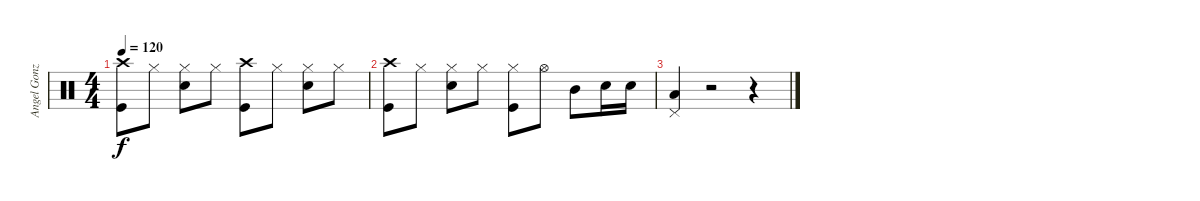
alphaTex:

\track ("Angel Gonzalez - Batería" "Angel Gonz") {instrument percussion}
\staff {score}
\articulation defaults
\ts (4 4)
\tempo 120
\clef neutral
\ks c
("Crash high (hit)" "Kick (hit)").8{dy f} "Hi-Hat (closed)".8 ("Hi-Hat (closed)" "Electric Snare (hit)").8 "Hi-Hat (closed)".8 ("Crash high (hit)" "Kick (hit)").8 "Hi-Hat (closed)".8 ("Hi-Hat (closed)" "Electric Snare (hit)").8 "Hi-Hat (closed)".8 |
("Crash high (hit)" "Kick (hit)").8 "Hi-Hat (closed)".8 ("Hi-Hat (closed)" "Electric Snare (hit)").8 "Hi-Hat (closed)".8 ("Hi-Hat (closed)" "Kick (hit)").8 "Hi-Hat (open)".8 "Mid Tom (hit)".8 "Electric Snare (hit)".16 "Electric Snare (hit)".16 |
("Low Tom (hit)" "Pedal Hi-Hat (hit)").4 r.2 r.4
